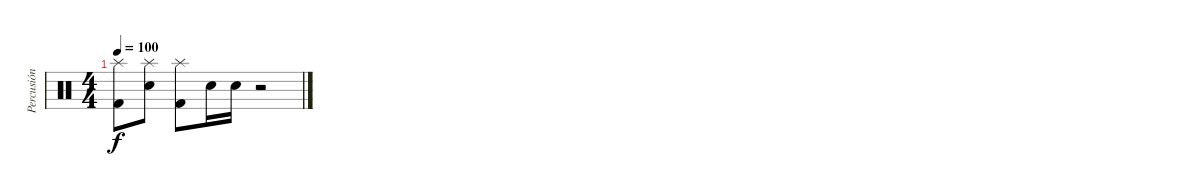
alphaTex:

\track ("Percusión" "Percusión") {instrument percussion}
\staff {score}
\articulation defaults
\ts (4 4)
\tempo 100
\clef neutral
\ks c
("Splash (hit)" "Kick (hit) 2").8{dy f} ("Splash (hit)" "Snare (hit) 2").8 ("Splash (hit)" "Kick (hit) 2").8 "Electric Snare (hit)".16 "Electric Snare (hit)".16 r.2
